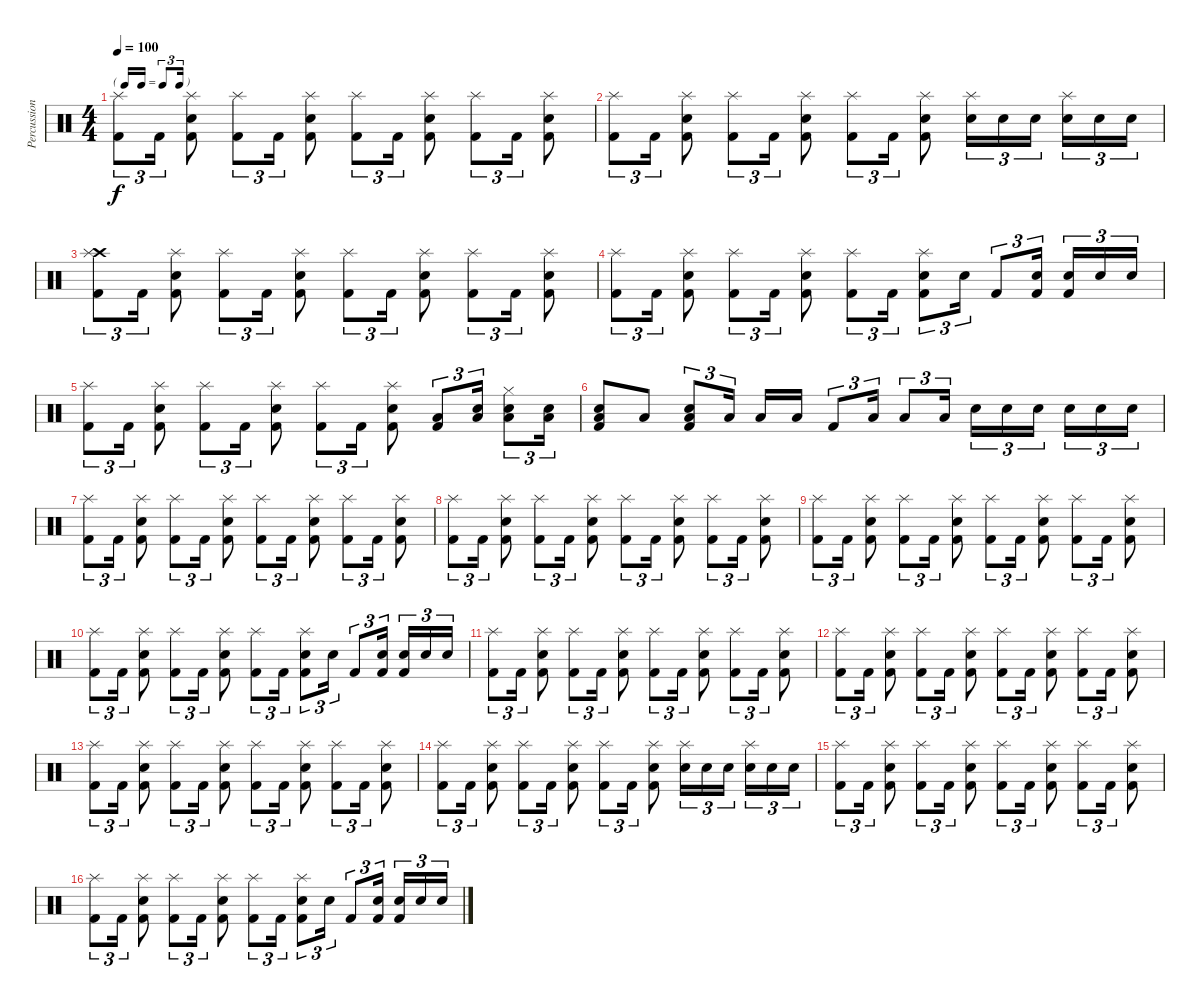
\track ("Percussion" "Percussion") {instrument percussion}
\staff {score}
\articulation defaults
\ts (4 4)
\tf triplet16th
\tempo 100
\clef neutral
\ks c
("Splash (hit)" "Kick (hit) 2").8{tu (3 2) dy f} "Kick (hit) 2".16{tu (3 2)} ("Splash (hit)" "Electric Snare (hit)" "Kick (hit) 2").8 ("Splash (hit)" "Kick (hit) 2").8{tu (3 2)} "Kick (hit) 2".16{tu (3 2)} ("Splash (hit)" "Electric Snare (hit)" "Kick (hit) 2").8 ("Splash (hit)" "Kick (hit) 2").8{tu (3 2)} "Kick (hit) 2".16{tu (3 2)} ("Splash (hit)" "Electric Snare (hit)" "Kick (hit) 2").8 ("Splash (hit)" "Kick (hit) 2").8{tu (3 2)} "Kick (hit) 2".16{tu (3 2)} ("Splash (hit)" "Electric Snare (hit)" "Kick (hit) 2").8 |
("Splash (hit)" "Kick (hit) 2").8{tu (3 2)} "Kick (hit) 2".16{tu (3 2)} ("Splash (hit)" "Electric Snare (hit)" "Kick (hit) 2").8 ("Splash (hit)" "Kick (hit) 2").8{tu (3 2)} "Kick (hit) 2".16{tu (3 2)} ("Splash (hit)" "Electric Snare (hit)" "Kick (hit) 2").8 ("Splash (hit)" "Kick (hit) 2").8{tu (3 2)} "Kick (hit) 2".16{tu (3 2)} ("Splash (hit)" "Electric Snare (hit)" "Kick (hit) 2").8 ("Splash (hit)" "Electric Snare (hit)").16{tu (3 2)} "Electric Snare (hit)".16{tu (3 2)} "Electric Snare (hit)".16{tu (3 2) beam splitsecondary} ("Splash (hit)" "Electric Snare (hit)").16{tu (3 2)} "Electric Snare (hit)".16{tu (3 2)} "Electric Snare (hit)".16{tu (3 2)} |
("Crash high (hit)" "Splash (hit)" "Kick (hit) 2").8{tu (3 2)} "Kick (hit) 2".16{tu (3 2)} ("Splash (hit)" "Electric Snare (hit)" "Kick (hit) 2").8 ("Splash (hit)" "Kick (hit) 2").8{tu (3 2)} "Kick (hit) 2".16{tu (3 2)} ("Splash (hit)" "Electric Snare (hit)" "Kick (hit) 2").8 ("Splash (hit)" "Kick (hit) 2").8{tu (3 2)} "Kick (hit) 2".16{tu (3 2)} ("Splash (hit)" "Electric Snare (hit)" "Kick (hit) 2").8 ("Splash (hit)" "Kick (hit) 2").8{tu (3 2)} "Kick (hit) 2".16{tu (3 2)} ("Splash (hit)" "Electric Snare (hit)" "Kick (hit) 2").8 |
("Splash (hit)" "Kick (hit) 2").8{tu (3 2)} "Kick (hit) 2".16{tu (3 2)} ("Splash (hit)" "Electric Snare (hit)" "Kick (hit) 2").8 ("Splash (hit)" "Kick (hit) 2").8{tu (3 2)} "Kick (hit) 2".16{tu (3 2)} ("Splash (hit)" "Electric Snare (hit)" "Kick (hit) 2").8 ("Splash (hit)" "Kick (hit) 2").8{tu (3 2)} "Kick (hit) 2".16{tu (3 2)} ("Splash (hit)" "Electric Snare (hit)" "Kick (hit) 2").8{tu (3 2)} "Electric Snare (hit)".16{tu (3 2)} "Kick (hit) 2".8{tu (3 2)} ("Electric Snare (hit)" "Kick (hit) 2").16{tu (3 2) beam splitsecondary} ("Electric Snare (hit)" "Kick (hit) 2").16{tu (3 2)} "Electric Snare (hit)".16{tu (3 2)} "Electric Snare (hit)".16{tu (3 2)} |
("Splash (hit)" "Kick (hit) 2").8{tu (3 2)} "Kick (hit) 2".16{tu (3 2)} ("Splash (hit)" "Electric Snare (hit)" "Kick (hit) 2").8 ("Splash (hit)" "Kick (hit) 2").8{tu (3 2)} "Kick (hit) 2".16{tu (3 2)} ("Splash (hit)" "Electric Snare (hit)" "Kick (hit) 2").8 ("Splash (hit)" "Kick (hit) 2").8{tu (3 2)} "Kick (hit) 2".16{tu (3 2)} ("Splash (hit)" "Electric Snare (hit)" "Kick (hit) 2").8 ("Low Floor Tom (hit)" "Kick (hit) 2").8{tu (3 2)} ("Electric Snare (hit)" "Low Floor Tom (hit)").16{tu (3 2)} ("Hi-Hat (closed)" "Electric Snare (hit)" "Low Tom (hit)").8{tu (3 2)} ("Electric Snare (hit)" "Low Floor Tom (hit)").16{tu (3 2)} |
("Electric Snare (hit)" "Low Floor Tom (hit)" "Kick (hit) 2").8 "Low Floor Tom (hit)".8 ("Electric Snare (hit)" "Low Floor Tom (hit)" "Kick (hit) 2").8{tu (3 2)} "Low Floor Tom (hit)".16{tu (3 2) beam splitsecondary} "Low Floor Tom (hit)".16 "Low Tom (hit)".16 "Kick (hit) 2".8{tu (3 2)} "Low Tom (hit)".16{tu (3 2)} "Low Floor Tom (hit)".8{tu (3 2)} "Low Floor Tom (hit)".16{tu (3 2)} "Electric Snare (hit)".16{tu (3 2)} "Electric Snare (hit)".16{tu (3 2)} "Electric Snare (hit)".16{tu (3 2) beam splitsecondary} "Electric Snare (hit)".16{tu (3 2)} "Electric Snare (hit)".16{tu (3 2)} "Electric Snare (hit)".16{tu (3 2)} |
("Splash (hit)" "Kick (hit) 2").8{tu (3 2)} "Kick (hit) 2".16{tu (3 2)} ("Splash (hit)" "Electric Snare (hit)" "Kick (hit) 2").8 ("Splash (hit)" "Kick (hit) 2").8{tu (3 2)} "Kick (hit) 2".16{tu (3 2)} ("Splash (hit)" "Electric Snare (hit)" "Kick (hit) 2").8 ("Splash (hit)" "Kick (hit) 2").8{tu (3 2)} "Kick (hit) 2".16{tu (3 2)} ("Splash (hit)" "Electric Snare (hit)" "Kick (hit) 2").8 ("Splash (hit)" "Kick (hit) 2").8{tu (3 2)} "Kick (hit) 2".16{tu (3 2)} ("Splash (hit)" "Electric Snare (hit)" "Kick (hit) 2").8 |
("Splash (hit)" "Kick (hit) 2").8{tu (3 2)} "Kick (hit) 2".16{tu (3 2)} ("Splash (hit)" "Electric Snare (hit)" "Kick (hit) 2").8 ("Splash (hit)" "Kick (hit) 2").8{tu (3 2)} "Kick (hit) 2".16{tu (3 2)} ("Splash (hit)" "Electric Snare (hit)" "Kick (hit) 2").8 ("Splash (hit)" "Kick (hit) 2").8{tu (3 2)} "Kick (hit) 2".16{tu (3 2)} ("Splash (hit)" "Electric Snare (hit)" "Kick (hit) 2").8 ("Splash (hit)" "Kick (hit) 2").8{tu (3 2)} "Kick (hit) 2".16{tu (3 2)} ("Splash (hit)" "Electric Snare (hit)" "Kick (hit) 2").8 |
("Splash (hit)" "Kick (hit) 2").8{tu (3 2)} "Kick (hit) 2".16{tu (3 2)} ("Splash (hit)" "Electric Snare (hit)" "Kick (hit) 2").8 ("Splash (hit)" "Kick (hit) 2").8{tu (3 2)} "Kick (hit) 2".16{tu (3 2)} ("Splash (hit)" "Electric Snare (hit)" "Kick (hit) 2").8 ("Splash (hit)" "Kick (hit) 2").8{tu (3 2)} "Kick (hit) 2".16{tu (3 2)} ("Splash (hit)" "Electric Snare (hit)" "Kick (hit) 2").8 ("Splash (hit)" "Kick (hit) 2").8{tu (3 2)} "Kick (hit) 2".16{tu (3 2)} ("Splash (hit)" "Electric Snare (hit)" "Kick (hit) 2").8 |
("Splash (hit)" "Kick (hit) 2").8{tu (3 2)} "Kick (hit) 2".16{tu (3 2)} ("Splash (hit)" "Electric Snare (hit)" "Kick (hit) 2").8 ("Splash (hit)" "Kick (hit) 2").8{tu (3 2)} "Kick (hit) 2".16{tu (3 2)} ("Splash (hit)" "Electric Snare (hit)" "Kick (hit) 2").8 ("Splash (hit)" "Kick (hit) 2").8{tu (3 2)} "Kick (hit) 2".16{tu (3 2)} ("Splash (hit)" "Electric Snare (hit)" "Kick (hit) 2").8{tu (3 2)} "Electric Snare (hit)".16{tu (3 2)} "Kick (hit) 2".8{tu (3 2)} ("Electric Snare (hit)" "Kick (hit) 2").16{tu (3 2) beam splitsecondary} ("Electric Snare (hit)" "Kick (hit) 2").16{tu (3 2)} "Electric Snare (hit)".16{tu (3 2)} "Electric Snare (hit)".16{tu (3 2)} |
("Splash (hit)" "Kick (hit) 2").8{tu (3 2)} "Kick (hit) 2".16{tu (3 2)} ("Splash (hit)" "Electric Snare (hit)" "Kick (hit) 2").8 ("Splash (hit)" "Kick (hit) 2").8{tu (3 2)} "Kick (hit) 2".16{tu (3 2)} ("Splash (hit)" "Electric Snare (hit)" "Kick (hit) 2").8 ("Splash (hit)" "Kick (hit) 2").8{tu (3 2)} "Kick (hit) 2".16{tu (3 2)} ("Splash (hit)" "Electric Snare (hit)" "Kick (hit) 2").8 ("Splash (hit)" "Kick (hit) 2").8{tu (3 2)} "Kick (hit) 2".16{tu (3 2)} ("Splash (hit)" "Electric Snare (hit)" "Kick (hit) 2").8 |
("Splash (hit)" "Kick (hit) 2").8{tu (3 2)} "Kick (hit) 2".16{tu (3 2)} ("Splash (hit)" "Electric Snare (hit)" "Kick (hit) 2").8 ("Splash (hit)" "Kick (hit) 2").8{tu (3 2)} "Kick (hit) 2".16{tu (3 2)} ("Splash (hit)" "Electric Snare (hit)" "Kick (hit) 2").8 ("Splash (hit)" "Kick (hit) 2").8{tu (3 2)} "Kick (hit) 2".16{tu (3 2)} ("Splash (hit)" "Electric Snare (hit)" "Kick (hit) 2").8 ("Splash (hit)" "Kick (hit) 2").8{tu (3 2)} "Kick (hit) 2".16{tu (3 2)} ("Splash (hit)" "Electric Snare (hit)" "Kick (hit) 2").8 |
("Splash (hit)" "Kick (hit) 2").8{tu (3 2)} "Kick (hit) 2".16{tu (3 2)} ("Splash (hit)" "Electric Snare (hit)" "Kick (hit) 2").8 ("Splash (hit)" "Kick (hit) 2").8{tu (3 2)} "Kick (hit) 2".16{tu (3 2)} ("Splash (hit)" "Electric Snare (hit)" "Kick (hit) 2").8 ("Splash (hit)" "Kick (hit) 2").8{tu (3 2)} "Kick (hit) 2".16{tu (3 2)} ("Splash (hit)" "Electric Snare (hit)" "Kick (hit) 2").8 ("Splash (hit)" "Kick (hit) 2").8{tu (3 2)} "Kick (hit) 2".16{tu (3 2)} ("Splash (hit)" "Electric Snare (hit)" "Kick (hit) 2").8 |
("Splash (hit)" "Kick (hit) 2").8{tu (3 2)} "Kick (hit) 2".16{tu (3 2)} ("Splash (hit)" "Electric Snare (hit)" "Kick (hit) 2").8 ("Splash (hit)" "Kick (hit) 2").8{tu (3 2)} "Kick (hit) 2".16{tu (3 2)} ("Splash (hit)" "Electric Snare (hit)" "Kick (hit) 2").8 ("Splash (hit)" "Kick (hit) 2").8{tu (3 2)} "Kick (hit) 2".16{tu (3 2)} ("Splash (hit)" "Electric Snare (hit)" "Kick (hit) 2").8 ("Splash (hit)" "Electric Snare (hit)").16{tu (3 2)} "Electric Snare (hit)".16{tu (3 2)} "Electric Snare (hit)".16{tu (3 2) beam splitsecondary} ("Splash (hit)" "Electric Snare (hit)").16{tu (3 2)} "Electric Snare (hit)".16{tu (3 2)} "Electric Snare (hit)".16{tu (3 2)} |
("Splash (hit)" "Kick (hit) 2").8{tu (3 2)} "Kick (hit) 2".16{tu (3 2)} ("Splash (hit)" "Electric Snare (hit)" "Kick (hit) 2").8 ("Splash (hit)" "Kick (hit) 2").8{tu (3 2)} "Kick (hit) 2".16{tu (3 2)} ("Splash (hit)" "Electric Snare (hit)" "Kick (hit) 2").8 ("Splash (hit)" "Kick (hit) 2").8{tu (3 2)} "Kick (hit) 2".16{tu (3 2)} ("Splash (hit)" "Electric Snare (hit)" "Kick (hit) 2").8 ("Splash (hit)" "Kick (hit) 2").8{tu (3 2)} "Kick (hit) 2".16{tu (3 2)} ("Splash (hit)" "Electric Snare (hit)" "Kick (hit) 2").8 |
("Splash (hit)" "Kick (hit) 2").8{tu (3 2)} "Kick (hit) 2".16{tu (3 2)} ("Splash (hit)" "Electric Snare (hit)" "Kick (hit) 2").8 ("Splash (hit)" "Kick (hit) 2").8{tu (3 2)} "Kick (hit) 2".16{tu (3 2)} ("Splash (hit)" "Electric Snare (hit)" "Kick (hit) 2").8 ("Splash (hit)" "Kick (hit) 2").8{tu (3 2)} "Kick (hit) 2".16{tu (3 2)} ("Splash (hit)" "Electric Snare (hit)" "Kick (hit) 2").8{tu (3 2)} "Electric Snare (hit)".16{tu (3 2)} "Kick (hit) 2".8{tu (3 2)} ("Electric Snare (hit)" "Kick (hit) 2").16{tu (3 2) beam splitsecondary} ("Electric Snare (hit)" "Kick (hit) 2").16{tu (3 2)} "Electric Snare (hit)".16{tu (3 2)} "Electric Snare (hit)".16{tu (3 2)}
